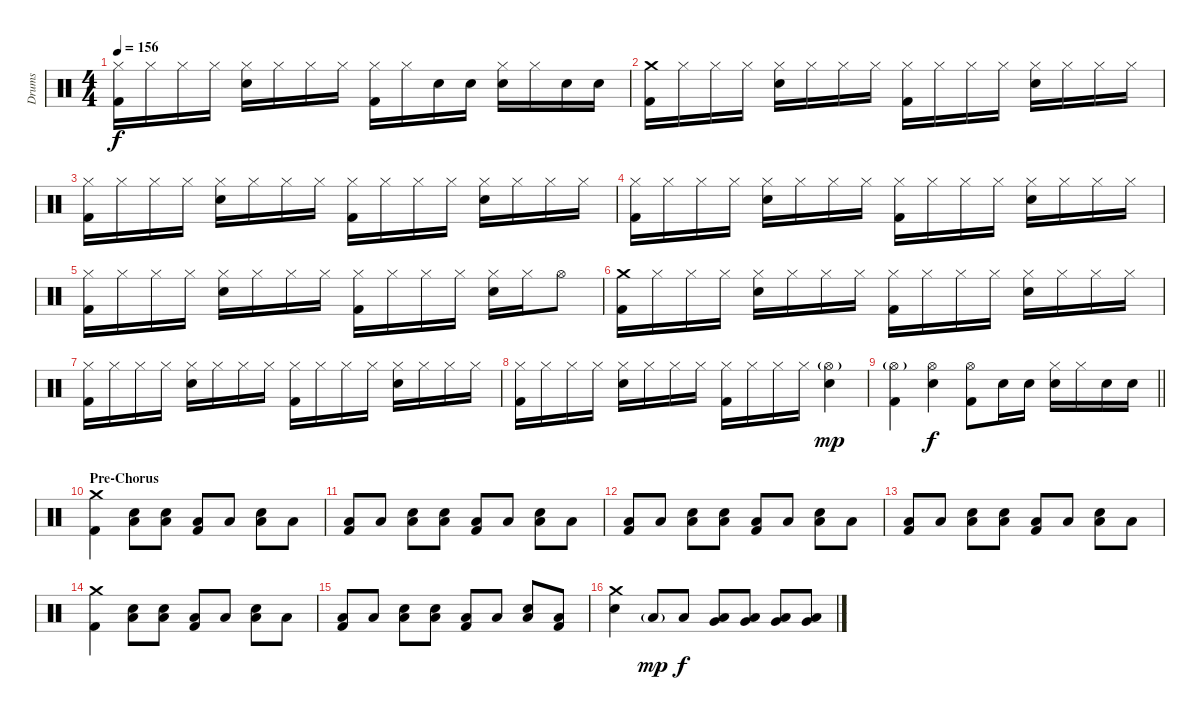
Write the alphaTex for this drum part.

\track ("Drums" "Drums") {instrument percussion}
\staff {score}
\articulation defaults
\ts (4 4)
\tempo 156
\clef neutral
\ks c
("Hi-Hat (closed)" "Kick (hit) 2").16{dy f} "Hi-Hat (closed)".16 "Hi-Hat (closed)".16 "Hi-Hat (closed)".16 ("Hi-Hat (closed)" "Electric Snare (hit)").16 "Hi-Hat (closed)".16 "Hi-Hat (closed)".16 "Hi-Hat (closed)".16 ("Hi-Hat (closed)" "Kick (hit) 2").16 "Hi-Hat (closed)".16 "Electric Snare (hit)".16 "Electric Snare (hit)".16 ("Hi-Hat (closed)" "Electric Snare (hit)").16 "Hi-Hat (closed)".16 "Electric Snare (hit)".16 "Electric Snare (hit)".16 |
("Crash medium (hit)" "Kick (hit) 2").16 "Hi-Hat (closed)".16 "Hi-Hat (closed)".16 "Hi-Hat (closed)".16 ("Hi-Hat (closed)" "Electric Snare (hit)").16 "Hi-Hat (closed)".16 "Hi-Hat (closed)".16 "Hi-Hat (closed)".16 ("Hi-Hat (closed)" "Kick (hit) 2").16 "Hi-Hat (closed)".16 "Hi-Hat (closed)".16 "Hi-Hat (closed)".16 ("Hi-Hat (closed)" "Electric Snare (hit)").16 "Hi-Hat (closed)".16 "Hi-Hat (closed)".16 "Hi-Hat (closed)".16 |
("Hi-Hat (closed)" "Kick (hit) 2").16 "Hi-Hat (closed)".16 "Hi-Hat (closed)".16 "Hi-Hat (closed)".16 ("Hi-Hat (closed)" "Electric Snare (hit)").16 "Hi-Hat (closed)".16 "Hi-Hat (closed)".16 "Hi-Hat (closed)".16 ("Hi-Hat (closed)" "Kick (hit) 2").16 "Hi-Hat (closed)".16 "Hi-Hat (closed)".16 "Hi-Hat (closed)".16 ("Hi-Hat (closed)" "Electric Snare (hit)").16 "Hi-Hat (closed)".16 "Hi-Hat (closed)".16 "Hi-Hat (closed)".16 |
("Hi-Hat (closed)" "Kick (hit) 2").16 "Hi-Hat (closed)".16 "Hi-Hat (closed)".16 "Hi-Hat (closed)".16 ("Hi-Hat (closed)" "Electric Snare (hit)").16 "Hi-Hat (closed)".16 "Hi-Hat (closed)".16 "Hi-Hat (closed)".16 ("Hi-Hat (closed)" "Kick (hit) 2").16 "Hi-Hat (closed)".16 "Hi-Hat (closed)".16 "Hi-Hat (closed)".16 ("Hi-Hat (closed)" "Electric Snare (hit)").16 "Hi-Hat (closed)".16 "Hi-Hat (closed)".16 "Hi-Hat (closed)".16 |
("Hi-Hat (closed)" "Kick (hit) 2").16 "Hi-Hat (closed)".16 "Hi-Hat (closed)".16 "Hi-Hat (closed)".16 ("Hi-Hat (closed)" "Electric Snare (hit)").16 "Hi-Hat (closed)".16 "Hi-Hat (closed)".16 "Hi-Hat (closed)".16 ("Hi-Hat (closed)" "Kick (hit) 2").16 "Hi-Hat (closed)".16 "Hi-Hat (closed)".16 "Hi-Hat (closed)".16 ("Hi-Hat (closed)" "Electric Snare (hit)").16 "Hi-Hat (closed)".16 "Hi-Hat (open)".8 |
("Crash medium (hit)" "Kick (hit) 2").16 "Hi-Hat (closed)".16 "Hi-Hat (closed)".16 "Hi-Hat (closed)".16 ("Hi-Hat (closed)" "Electric Snare (hit)").16 "Hi-Hat (closed)".16 "Hi-Hat (closed)".16 "Hi-Hat (closed)".16 ("Hi-Hat (closed)" "Kick (hit) 2").16 "Hi-Hat (closed)".16 "Hi-Hat (closed)".16 "Hi-Hat (closed)".16 ("Hi-Hat (closed)" "Electric Snare (hit)").16 "Hi-Hat (closed)".16 "Hi-Hat (closed)".16 "Hi-Hat (closed)".16 |
("Hi-Hat (closed)" "Kick (hit) 2").16 "Hi-Hat (closed)".16 "Hi-Hat (closed)".16 "Hi-Hat (closed)".16 ("Hi-Hat (closed)" "Electric Snare (hit)").16 "Hi-Hat (closed)".16 "Hi-Hat (closed)".16 "Hi-Hat (closed)".16 ("Hi-Hat (closed)" "Kick (hit) 2").16 "Hi-Hat (closed)".16 "Hi-Hat (closed)".16 "Hi-Hat (closed)".16 ("Hi-Hat (closed)" "Electric Snare (hit)").16 "Hi-Hat (closed)".16 "Hi-Hat (closed)".16 "Hi-Hat (closed)".16 |
("Hi-Hat (closed)" "Kick (hit) 2").16 "Hi-Hat (closed)".16 "Hi-Hat (closed)".16 "Hi-Hat (closed)".16 ("Hi-Hat (closed)" "Electric Snare (hit)").16 "Hi-Hat (closed)".16 "Hi-Hat (closed)".16 "Hi-Hat (closed)".16 ("Hi-Hat (closed)" "Kick (hit) 2").16 "Hi-Hat (closed)".16 "Hi-Hat (closed)".16 "Hi-Hat (closed)".16 ("Hi-Hat (open)"{g} "Electric Snare (hit)").4{dy mp} |
\barLineRight lightlight
("Hi-Hat (open)"{g} "Kick (hit) 2").4 ("Hi-Hat (open)" "Electric Snare (hit)").4{dy f} ("Hi-Hat (open)" "Kick (hit) 2").8 "Electric Snare (hit)".16 "Electric Snare (hit)".16 ("Hi-Hat (closed)" "Electric Snare (hit)").16 "Hi-Hat (closed)".16 "Electric Snare (hit)".16 "Electric Snare (hit)".16 |
\section ("" "Pre-Chorus")
("Crash medium (hit)" "Kick (hit) 2").4 ("Low Floor Tom (hit)" "Electric Snare (hit)").8 ("Low Floor Tom (hit)" "Electric Snare (hit)").8 ("Low Floor Tom (hit)" "Kick (hit) 2").8 "Low Floor Tom (hit)".8 ("Low Floor Tom (hit)" "Electric Snare (hit)").8 "Low Floor Tom (hit)".8 |
("Low Floor Tom (hit)" "Kick (hit) 2").8 "Low Floor Tom (hit)".8 ("Low Floor Tom (hit)" "Electric Snare (hit)").8 ("Low Floor Tom (hit)" "Electric Snare (hit)").8 ("Low Floor Tom (hit)" "Kick (hit) 2").8 "Low Floor Tom (hit)".8 ("Low Floor Tom (hit)" "Electric Snare (hit)").8 "Low Floor Tom (hit)".8 |
("Low Floor Tom (hit)" "Kick (hit) 2").8 "Low Floor Tom (hit)".8 ("Low Floor Tom (hit)" "Electric Snare (hit)").8 ("Low Floor Tom (hit)" "Electric Snare (hit)").8 ("Low Floor Tom (hit)" "Kick (hit) 2").8 "Low Floor Tom (hit)".8 ("Low Floor Tom (hit)" "Electric Snare (hit)").8 "Low Floor Tom (hit)".8 |
("Low Floor Tom (hit)" "Kick (hit) 2").8 "Low Floor Tom (hit)".8 ("Low Floor Tom (hit)" "Electric Snare (hit)").8 ("Low Floor Tom (hit)" "Electric Snare (hit)").8 ("Low Floor Tom (hit)" "Kick (hit) 2").8 "Low Floor Tom (hit)".8 ("Low Floor Tom (hit)" "Electric Snare (hit)").8 "Low Floor Tom (hit)".8 |
("Crash medium (hit)" "Kick (hit) 2").4 ("Low Floor Tom (hit)" "Electric Snare (hit)").8 ("Low Floor Tom (hit)" "Electric Snare (hit)").8 ("Low Floor Tom (hit)" "Kick (hit) 2").8 "Low Floor Tom (hit)".8 ("Low Floor Tom (hit)" "Electric Snare (hit)").8 "Low Floor Tom (hit)".8 |
("Low Floor Tom (hit)" "Kick (hit) 2").8 "Low Floor Tom (hit)".8 ("Low Floor Tom (hit)" "Electric Snare (hit)").8 ("Low Floor Tom (hit)" "Electric Snare (hit)").8 ("Low Floor Tom (hit)" "Kick (hit) 2").8 "Low Floor Tom (hit)".8 ("Low Floor Tom (hit)" "Electric Snare (hit)").8 ("Low Floor Tom (hit)" "Kick (hit) 2").8 |
("Crash medium (hit)" "Electric Snare (hit)").4 "Low Floor Tom (hit)"{g}.8{dy mp} "Low Floor Tom (hit)".8{dy f} ("Very Low Tom (hit)" "Low Floor Tom (hit)").8 ("Very Low Tom (hit)" "Low Floor Tom (hit)").8 ("Low Tom (hit)" "Very Low Tom (hit)").8 ("Low Tom (hit)" "Very Low Tom (hit)").8
